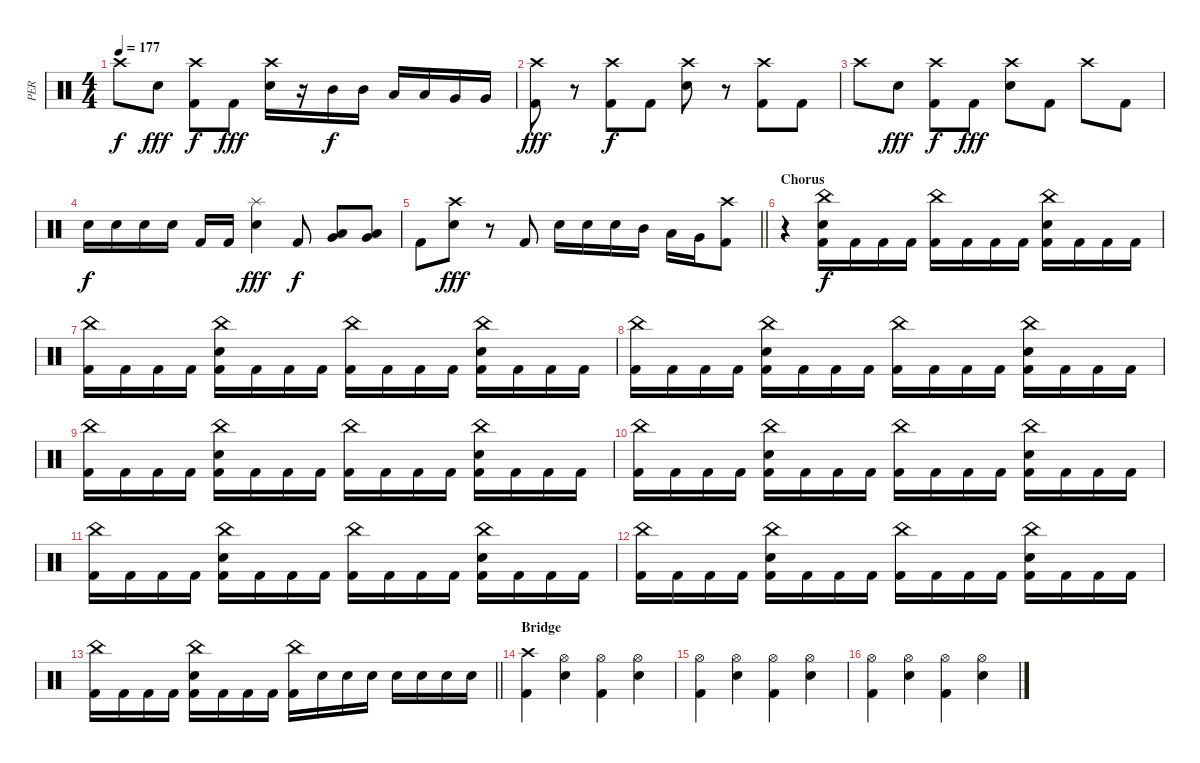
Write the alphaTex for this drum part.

\track ("PER" "PER") {instrument percussion}
\staff {score}
\articulation defaults
\ts (4 4)
\tempo 177
\clef neutral
\ks c "Crash high (hit)".8{dy f} "Electric Snare (hit)".8{dy fff}
("Crash high (hit)" "Kick (hit) 2").8{dy f} "Kick (hit) 2".8{dy fff} ("Crash high (hit)" "Electric Snare (hit)").16 r.16 "Mid Tom (hit)".16{dy f} "Mid Tom (hit)".16 "Low Tom (hit)".16 "Low Tom (hit)".16 "Very Low Tom (hit)".16 "Very Low Tom (hit)".16 |
("Crash high (hit)" "Kick (hit) 2").8{dy fff} r.8 ("Crash high (hit)" "Kick (hit) 2").8{dy f} "Kick (hit) 2".8 ("Crash high (hit)" "Electric Snare (hit)").8 r.8 ("Crash high (hit)" "Kick (hit) 2").8 "Kick (hit) 2".8 |
"Crash high (hit)".8 "Electric Snare (hit)".8{dy fff} ("Crash high (hit)" "Kick (hit) 2").8{dy f} "Kick (hit) 2".8{dy fff} ("Crash high (hit)" "Electric Snare (hit)").8 "Kick (hit) 2".8 "Crash high (hit)".8 "Kick (hit) 2".8 |
"Electric Snare (hit)".16{dy f} "Electric Snare (hit)".16 "Electric Snare (hit)".16 "Electric Snare (hit)".16 "Kick (hit) 2".16 "Kick (hit) 2".16 ("Splash (hit)" "Electric Snare (hit)").4{dy fff} "Kick (hit) 2".8{dy f} ("Low Tom (hit)" "Very Low Tom (hit)").8 ("Low Tom (hit)" "Very Low Tom (hit)").8 |
\barLineRight lightlight "Kick (hit) 2".8
("Crash high (hit)" "Electric Snare (hit)").8{dy fff} r.8 "Kick (hit) 2".8 "Electric Snare (hit)".16 "Electric Snare (hit)".16 "Electric Snare (hit)".16 "Mid Tom (hit)".16 "Low Tom (hit)".16 "Very Low Tom (hit)".16 ("Crash high (hit)" "Kick (hit) 2").8 |
\section ("" "Chorus")
r.4 ("China (hit)" "Electric Snare (hit)" "Kick (hit) 2").16{dy f} "Kick (hit) 2".16 "Kick (hit) 2".16 "Kick (hit) 2".16 ("China (hit)" "Kick (hit) 2").16 "Kick (hit) 2".16 "Kick (hit) 2".16 "Kick (hit) 2".16 ("China (hit)" "Electric Snare (hit)" "Kick (hit) 2").16 "Kick (hit) 2".16 "Kick (hit) 2".16 "Kick (hit) 2".16 |
("China (hit)" "Kick (hit) 2").16 "Kick (hit) 2".16 "Kick (hit) 2".16 "Kick (hit) 2".16 ("China (hit)" "Electric Snare (hit)" "Kick (hit) 2").16 "Kick (hit) 2".16 "Kick (hit) 2".16 "Kick (hit) 2".16 ("China (hit)" "Kick (hit) 2").16 "Kick (hit) 2".16 "Kick (hit) 2".16 "Kick (hit) 2".16 ("China (hit)" "Electric Snare (hit)" "Kick (hit) 2").16 "Kick (hit) 2".16 "Kick (hit) 2".16 "Kick (hit) 2".16 |
("China (hit)" "Kick (hit) 2").16 "Kick (hit) 2".16 "Kick (hit) 2".16 "Kick (hit) 2".16 ("China (hit)" "Electric Snare (hit)" "Kick (hit) 2").16 "Kick (hit) 2".16 "Kick (hit) 2".16 "Kick (hit) 2".16 ("China (hit)" "Kick (hit) 2").16 "Kick (hit) 2".16 "Kick (hit) 2".16 "Kick (hit) 2".16 ("China (hit)" "Electric Snare (hit)" "Kick (hit) 2").16 "Kick (hit) 2".16 "Kick (hit) 2".16 "Kick (hit) 2".16 |
("China (hit)" "Kick (hit) 2").16 "Kick (hit) 2".16 "Kick (hit) 2".16 "Kick (hit) 2".16 ("China (hit)" "Electric Snare (hit)" "Kick (hit) 2").16 "Kick (hit) 2".16 "Kick (hit) 2".16 "Kick (hit) 2".16 ("China (hit)" "Kick (hit) 2").16 "Kick (hit) 2".16 "Kick (hit) 2".16 "Kick (hit) 2".16 ("China (hit)" "Electric Snare (hit)" "Kick (hit) 2").16 "Kick (hit) 2".16 "Kick (hit) 2".16 "Kick (hit) 2".16 |
("China (hit)" "Kick (hit) 2").16 "Kick (hit) 2".16 "Kick (hit) 2".16 "Kick (hit) 2".16 ("China (hit)" "Electric Snare (hit)" "Kick (hit) 2").16 "Kick (hit) 2".16 "Kick (hit) 2".16 "Kick (hit) 2".16 ("China (hit)" "Kick (hit) 2").16 "Kick (hit) 2".16 "Kick (hit) 2".16 "Kick (hit) 2".16 ("China (hit)" "Electric Snare (hit)" "Kick (hit) 2").16 "Kick (hit) 2".16 "Kick (hit) 2".16 "Kick (hit) 2".16 |
("China (hit)" "Kick (hit) 2").16 "Kick (hit) 2".16 "Kick (hit) 2".16 "Kick (hit) 2".16 ("China (hit)" "Electric Snare (hit)" "Kick (hit) 2").16 "Kick (hit) 2".16 "Kick (hit) 2".16 "Kick (hit) 2".16 ("China (hit)" "Kick (hit) 2").16 "Kick (hit) 2".16 "Kick (hit) 2".16 "Kick (hit) 2".16 ("China (hit)" "Electric Snare (hit)" "Kick (hit) 2").16 "Kick (hit) 2".16 "Kick (hit) 2".16 "Kick (hit) 2".16 |
("China (hit)" "Kick (hit) 2").16 "Kick (hit) 2".16 "Kick (hit) 2".16 "Kick (hit) 2".16 ("China (hit)" "Electric Snare (hit)" "Kick (hit) 2").16 "Kick (hit) 2".16 "Kick (hit) 2".16 "Kick (hit) 2".16 ("China (hit)" "Kick (hit) 2").16 "Kick (hit) 2".16 "Kick (hit) 2".16 "Kick (hit) 2".16 ("China (hit)" "Electric Snare (hit)" "Kick (hit) 2").16 "Kick (hit) 2".16 "Kick (hit) 2".16 "Kick (hit) 2".16 |
\barLineRight lightlight
("China (hit)" "Kick (hit) 2").16 "Kick (hit) 2".16 "Kick (hit) 2".16 "Kick (hit) 2".16 ("China (hit)" "Electric Snare (hit)" "Kick (hit) 2").16 "Kick (hit) 2".16 "Kick (hit) 2".16 "Kick (hit) 2".16 ("China (hit)" "Kick (hit) 2").16 "Electric Snare (hit)".16 "Electric Snare (hit)".16 "Electric Snare (hit)".16 "Electric Snare (hit)".16 "Electric Snare (hit)".16 "Electric Snare (hit)".16 "Electric Snare (hit)".16 |
\section ("" "Bridge")
("Crash high (hit)" "Kick (hit) 2").4 ("Hi-Hat (open)" "Electric Snare (hit)").4 ("Hi-Hat (open)" "Kick (hit) 2").4 ("Hi-Hat (open)" "Electric Snare (hit)").4 |
("Hi-Hat (open)" "Kick (hit) 2").4 ("Hi-Hat (open)" "Electric Snare (hit)").4 ("Hi-Hat (open)" "Kick (hit) 2").4 ("Hi-Hat (open)" "Electric Snare (hit)").4 |
("Hi-Hat (open)" "Kick (hit) 2").4 ("Hi-Hat (open)" "Electric Snare (hit)").4 ("Hi-Hat (open)" "Kick (hit) 2").4 ("Hi-Hat (open)" "Electric Snare (hit)").4
